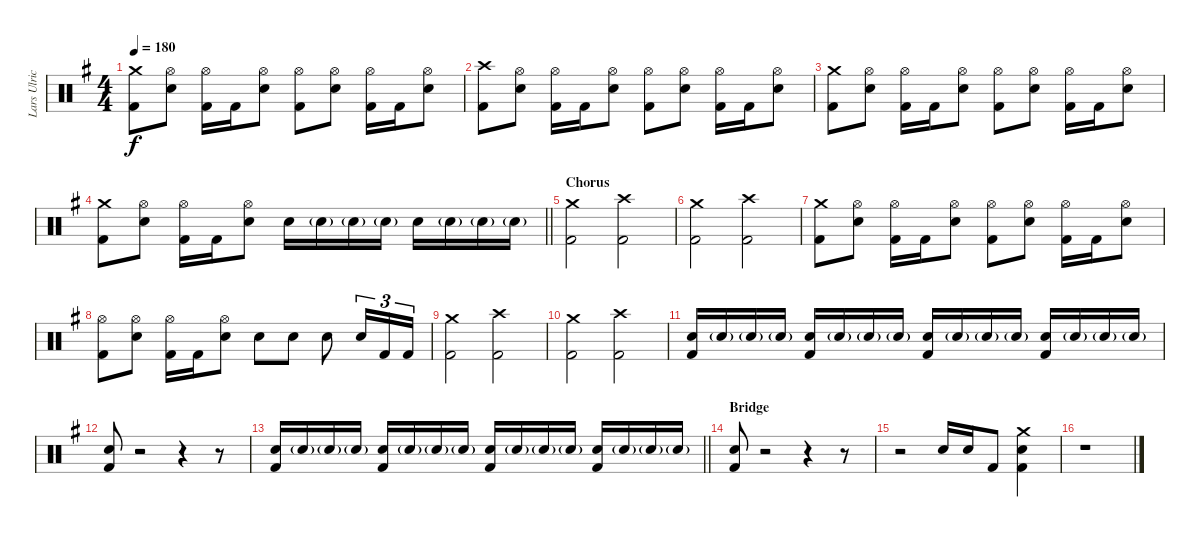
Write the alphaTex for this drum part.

\track ("Lars Ulrich" "Lars Ulric") {instrument percussion}
\staff {score}
\articulation defaults
\ts (4 4)
\tempo 180
\clef neutral
\ks eminor
("Crash medium (hit)" "Kick (hit) 2").8{dy f} ("Hi-Hat (open)" "Snare (hit) 2").8 ("Hi-Hat (open)" "Kick (hit) 2").16 "Kick (hit) 2".16 ("Hi-Hat (open)" "Snare (hit) 2").8 ("Hi-Hat (open)" "Kick (hit) 2").8 ("Hi-Hat (open)" "Snare (hit) 2").8 ("Hi-Hat (open)" "Kick (hit) 2").16 "Kick (hit) 2".16 ("Hi-Hat (open)" "Snare (hit) 2").8 |
("Crash high (hit)" "Kick (hit) 2").8 ("Hi-Hat (open)" "Snare (hit) 2").8 ("Hi-Hat (open)" "Kick (hit) 2").16 "Kick (hit) 2".16 ("Hi-Hat (open)" "Snare (hit) 2").8 ("Hi-Hat (open)" "Kick (hit) 2").8 ("Hi-Hat (open)" "Snare (hit) 2").8 ("Hi-Hat (open)" "Kick (hit) 2").16 "Kick (hit) 2".16 ("Hi-Hat (open)" "Snare (hit) 2").8 |
("Crash medium (hit)" "Kick (hit) 2").8 ("Hi-Hat (open)" "Snare (hit) 2").8 ("Hi-Hat (open)" "Kick (hit) 2").16 "Kick (hit) 2".16 ("Hi-Hat (open)" "Snare (hit) 2").8 ("Hi-Hat (open)" "Kick (hit) 2").8 ("Hi-Hat (open)" "Snare (hit) 2").8 ("Hi-Hat (open)" "Kick (hit) 2").16 "Kick (hit) 2".16 ("Hi-Hat (open)" "Snare (hit) 2").8 |
\barLineRight lightlight
("Crash medium (hit)" "Kick (hit) 2").8 ("Hi-Hat (open)" "Snare (hit) 2").8 ("Hi-Hat (open)" "Kick (hit) 2").16 "Kick (hit) 2".16 ("Hi-Hat (open)" "Snare (hit) 2").8 "Snare (hit) 2".16 "Snare (hit) 2"{g}.16 "Snare (hit) 2"{g}.16 "Snare (hit) 2"{g}.16 "Snare (hit) 2".16 "Snare (hit) 2"{g}.16 "Snare (hit) 2"{g}.16 "Snare (hit) 2"{g}.16 |
\section ("" "Chorus")
("Crash medium (hit)" "Kick (hit) 2").2 ("Crash high (hit)" "Kick (hit) 2").2 |
("Crash medium (hit)" "Kick (hit) 2").2 ("Crash high (hit)" "Kick (hit) 2").2 |
("Crash medium (hit)" "Kick (hit) 2").8 ("Hi-Hat (open)" "Snare (hit) 2").8 ("Hi-Hat (open)" "Kick (hit) 2").16 "Kick (hit) 2".16 ("Hi-Hat (open)" "Snare (hit) 2").8 ("Hi-Hat (open)" "Kick (hit) 2").8 ("Hi-Hat (open)" "Snare (hit) 2").8 ("Hi-Hat (open)" "Kick (hit) 2").16 "Kick (hit) 2".16 ("Hi-Hat (open)" "Snare (hit) 2").8 |
("Hi-Hat (open)" "Kick (hit) 2").8 ("Hi-Hat (open)" "Snare (hit) 2").8 ("Hi-Hat (open)" "Kick (hit) 2").16 "Kick (hit) 2".16 ("Hi-Hat (open)" "Snare (hit) 2").8 "Snare (hit) 2".8 "Snare (hit) 2".8 "Snare (hit) 2".8 "Snare (hit) 2".16{tu (3 2)} "Kick (hit) 2".16{tu (3 2)} "Kick (hit) 2".16{tu (3 2)} |
("Crash medium (hit)" "Kick (hit) 2").2 ("Crash high (hit)" "Kick (hit) 2").2 |
("Crash medium (hit)" "Kick (hit) 2").2 ("Crash high (hit)" "Kick (hit) 2").2 |
("Snare (hit) 2" "Kick (hit) 2").16 "Snare (hit) 2"{g}.16 "Snare (hit) 2"{g}.16 "Snare (hit) 2"{g}.16 ("Snare (hit) 2" "Kick (hit) 2").16 "Snare (hit) 2"{g}.16 "Snare (hit) 2"{g}.16 "Snare (hit) 2"{g}.16 ("Snare (hit) 2" "Kick (hit) 2").16 "Snare (hit) 2"{g}.16 "Snare (hit) 2"{g}.16 "Snare (hit) 2"{g}.16 ("Snare (hit) 2" "Kick (hit) 2").16 "Snare (hit) 2"{g}.16 "Snare (hit) 2"{g}.16 "Snare (hit) 2"{g}.16 |
("Snare (hit) 2" "Kick (hit) 2").8 r.2 r.4 r.8 |
\barLineRight lightlight
("Snare (hit) 2" "Kick (hit) 2").16 "Snare (hit) 2"{g}.16 "Snare (hit) 2"{g}.16 "Snare (hit) 2"{g}.16 ("Snare (hit) 2" "Kick (hit) 2").16 "Snare (hit) 2"{g}.16 "Snare (hit) 2"{g}.16 "Snare (hit) 2"{g}.16 ("Snare (hit) 2" "Kick (hit) 2").16 "Snare (hit) 2"{g}.16 "Snare (hit) 2"{g}.16 "Snare (hit) 2"{g}.16 ("Snare (hit) 2" "Kick (hit) 2").16 "Snare (hit) 2"{g}.16 "Snare (hit) 2"{g}.16 "Snare (hit) 2"{g}.16 |
\section ("" "Bridge")
("Snare (hit) 2" "Kick (hit) 2").8 r.2 r.4 r.8 |
r.2 "Snare (hit) 2".16 "Snare (hit) 2".16 "Kick (hit) 2".8 ("Crash medium (hit)" "Snare (hit) 2" "Kick (hit) 2").4 |
r.1
